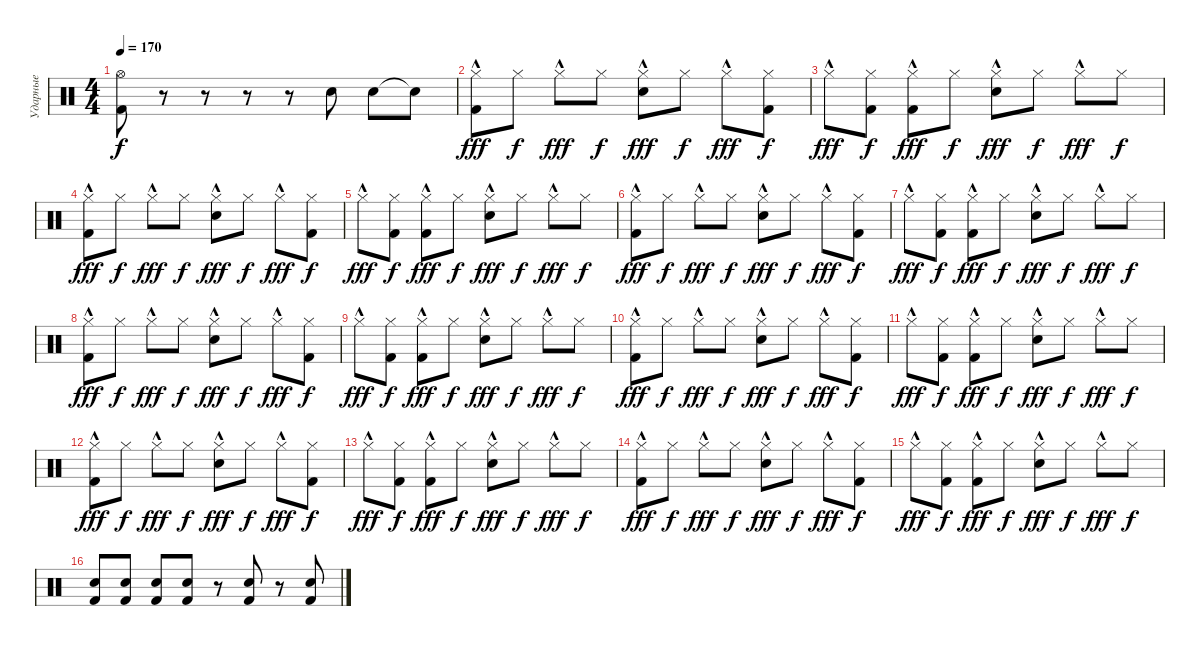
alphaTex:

\track ("Ударные" "Ударные") {instrument percussion}
\staff {score}
\articulation defaults
\ts (4 4)
\tempo 170
\clef neutral
\ks c
("Hi-Hat (open)" "Kick (hit) 2").8{dy f} r.8 r.8 r.8 r.8 "Electric Snare (hit)".8 "Electric Snare (hit)".8 "Snare (hit)"{t}.8 |
("Hi-Hat (closed)"{hac} "Kick (hit) 2").8{dy fff} "Hi-Hat (closed)".8{dy f} "Hi-Hat (closed)"{hac}.8{dy fff} "Hi-Hat (closed)".8{dy f} ("Hi-Hat (closed)"{hac} "Electric Snare (hit)").8{dy fff} "Hi-Hat (closed)".8{dy f} "Hi-Hat (closed)"{hac}.8{dy fff} ("Hi-Hat (closed)" "Kick (hit) 2").8{dy f} |
"Hi-Hat (closed)"{hac}.8{dy fff} ("Hi-Hat (closed)" "Kick (hit) 2").8{dy f} ("Hi-Hat (closed)"{hac} "Kick (hit) 2").8{dy fff} "Hi-Hat (closed)".8{dy f} ("Hi-Hat (closed)"{hac} "Electric Snare (hit)").8{dy fff} "Hi-Hat (closed)".8{dy f} "Hi-Hat (closed)"{hac}.8{dy fff} "Hi-Hat (closed)".8{dy f} |
("Hi-Hat (closed)"{hac} "Kick (hit) 2").8{dy fff} "Hi-Hat (closed)".8{dy f} "Hi-Hat (closed)"{hac}.8{dy fff} "Hi-Hat (closed)".8{dy f} ("Hi-Hat (closed)"{hac} "Electric Snare (hit)").8{dy fff} "Hi-Hat (closed)".8{dy f} "Hi-Hat (closed)"{hac}.8{dy fff} ("Hi-Hat (closed)" "Kick (hit) 2").8{dy f} |
"Hi-Hat (closed)"{hac}.8{dy fff} ("Hi-Hat (closed)" "Kick (hit) 2").8{dy f} ("Hi-Hat (closed)"{hac} "Kick (hit) 2").8{dy fff} "Hi-Hat (closed)".8{dy f} ("Hi-Hat (closed)"{hac} "Electric Snare (hit)").8{dy fff} "Hi-Hat (closed)".8{dy f} "Hi-Hat (closed)"{hac}.8{dy fff} "Hi-Hat (closed)".8{dy f} |
("Hi-Hat (closed)"{hac} "Kick (hit) 2").8{dy fff} "Hi-Hat (closed)".8{dy f} "Hi-Hat (closed)"{hac}.8{dy fff} "Hi-Hat (closed)".8{dy f} ("Hi-Hat (closed)"{hac} "Electric Snare (hit)").8{dy fff} "Hi-Hat (closed)".8{dy f} "Hi-Hat (closed)"{hac}.8{dy fff} ("Hi-Hat (closed)" "Kick (hit) 2").8{dy f} |
"Hi-Hat (closed)"{hac}.8{dy fff} ("Hi-Hat (closed)" "Kick (hit) 2").8{dy f} ("Hi-Hat (closed)"{hac} "Kick (hit) 2").8{dy fff} "Hi-Hat (closed)".8{dy f} ("Hi-Hat (closed)"{hac} "Electric Snare (hit)").8{dy fff} "Hi-Hat (closed)".8{dy f} "Hi-Hat (closed)"{hac}.8{dy fff} "Hi-Hat (closed)".8{dy f} |
("Hi-Hat (closed)"{hac} "Kick (hit) 2").8{dy fff} "Hi-Hat (closed)".8{dy f} "Hi-Hat (closed)"{hac}.8{dy fff} "Hi-Hat (closed)".8{dy f} ("Hi-Hat (closed)"{hac} "Electric Snare (hit)").8{dy fff} "Hi-Hat (closed)".8{dy f} "Hi-Hat (closed)"{hac}.8{dy fff} ("Hi-Hat (closed)" "Kick (hit) 2").8{dy f} |
"Hi-Hat (closed)"{hac}.8{dy fff} ("Hi-Hat (closed)" "Kick (hit) 2").8{dy f} ("Hi-Hat (closed)"{hac} "Kick (hit) 2").8{dy fff} "Hi-Hat (closed)".8{dy f} ("Hi-Hat (closed)"{hac} "Electric Snare (hit)").8{dy fff} "Hi-Hat (closed)".8{dy f} "Hi-Hat (closed)"{hac}.8{dy fff} "Hi-Hat (closed)".8{dy f} |
("Hi-Hat (closed)"{hac} "Kick (hit) 2").8{dy fff} "Hi-Hat (closed)".8{dy f} "Hi-Hat (closed)"{hac}.8{dy fff} "Hi-Hat (closed)".8{dy f} ("Hi-Hat (closed)"{hac} "Electric Snare (hit)").8{dy fff} "Hi-Hat (closed)".8{dy f} "Hi-Hat (closed)"{hac}.8{dy fff} ("Hi-Hat (closed)" "Kick (hit) 2").8{dy f} |
"Hi-Hat (closed)"{hac}.8{dy fff} ("Hi-Hat (closed)" "Kick (hit) 2").8{dy f} ("Hi-Hat (closed)"{hac} "Kick (hit) 2").8{dy fff} "Hi-Hat (closed)".8{dy f} ("Hi-Hat (closed)"{hac} "Electric Snare (hit)").8{dy fff} "Hi-Hat (closed)".8{dy f} "Hi-Hat (closed)"{hac}.8{dy fff} "Hi-Hat (closed)".8{dy f} |
("Hi-Hat (closed)"{hac} "Kick (hit) 2").8{dy fff} "Hi-Hat (closed)".8{dy f} "Hi-Hat (closed)"{hac}.8{dy fff} "Hi-Hat (closed)".8{dy f} ("Hi-Hat (closed)"{hac} "Electric Snare (hit)").8{dy fff} "Hi-Hat (closed)".8{dy f} "Hi-Hat (closed)"{hac}.8{dy fff} ("Hi-Hat (closed)" "Kick (hit) 2").8{dy f} |
"Hi-Hat (closed)"{hac}.8{dy fff} ("Hi-Hat (closed)" "Kick (hit) 2").8{dy f} ("Hi-Hat (closed)"{hac} "Kick (hit) 2").8{dy fff} "Hi-Hat (closed)".8{dy f} ("Hi-Hat (closed)"{hac} "Electric Snare (hit)").8{dy fff} "Hi-Hat (closed)".8{dy f} "Hi-Hat (closed)"{hac}.8{dy fff} "Hi-Hat (closed)".8{dy f} |
("Hi-Hat (closed)"{hac} "Kick (hit) 2").8{dy fff} "Hi-Hat (closed)".8{dy f} "Hi-Hat (closed)"{hac}.8{dy fff} "Hi-Hat (closed)".8{dy f} ("Hi-Hat (closed)"{hac} "Electric Snare (hit)").8{dy fff} "Hi-Hat (closed)".8{dy f} "Hi-Hat (closed)"{hac}.8{dy fff} ("Hi-Hat (closed)" "Kick (hit) 2").8{dy f} |
"Hi-Hat (closed)"{hac}.8{dy fff} ("Hi-Hat (closed)" "Kick (hit) 2").8{dy f} ("Hi-Hat (closed)"{hac} "Kick (hit) 2").8{dy fff} "Hi-Hat (closed)".8{dy f} ("Hi-Hat (closed)"{hac} "Electric Snare (hit)").8{dy fff} "Hi-Hat (closed)".8{dy f} "Hi-Hat (closed)"{hac}.8{dy fff} "Hi-Hat (closed)".8{dy f} |
("Electric Snare (hit)" "Kick (hit) 2").8 ("Electric Snare (hit)" "Kick (hit) 2").8 ("Electric Snare (hit)" "Kick (hit) 2").8 ("Electric Snare (hit)" "Kick (hit) 2").8 r.8 ("Electric Snare (hit)" "Kick (hit) 2").8 r.8 ("Electric Snare (hit)" "Kick (hit) 2").8
